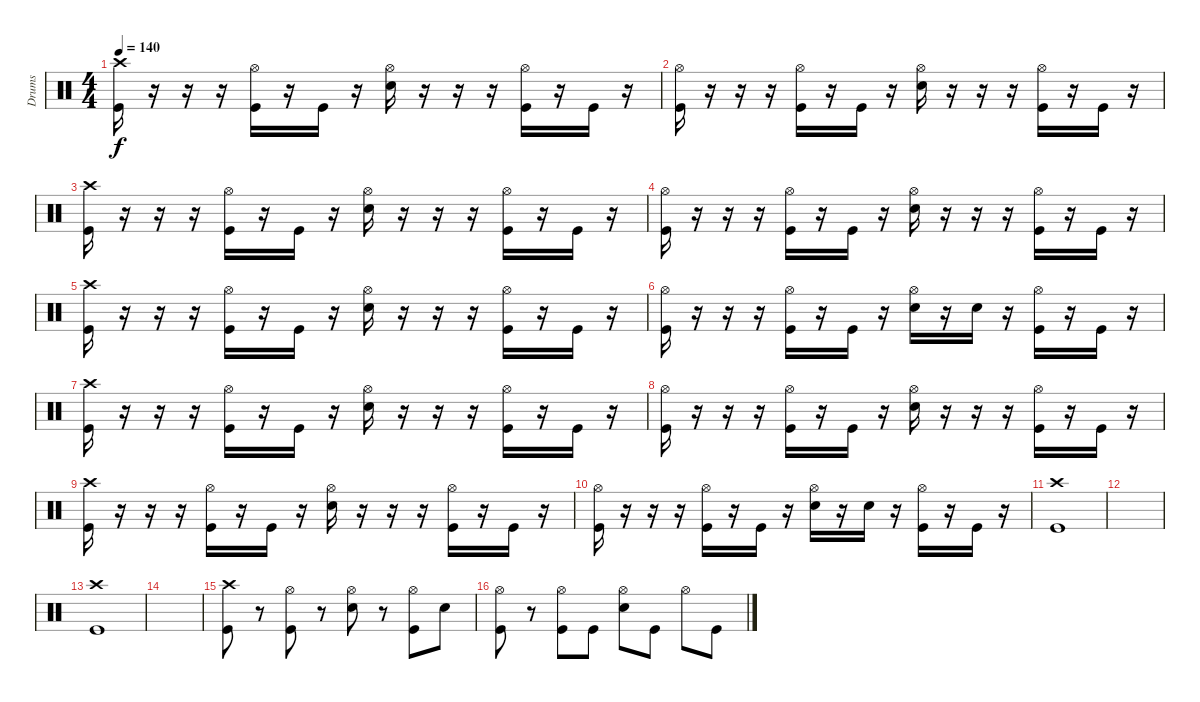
\track ("Drums" "Drums") {instrument percussion}
\staff {score}
\articulation defaults
\ts (4 4)
\tempo 140
\clef neutral
\ks c
("Crash high (hit)" "Kick (hit)").16{dy f} r.16 r.16 r.16 ("Hi-Hat (open)" "Kick (hit)").16 r.16 "Kick (hit)".16 r.16 ("Hi-Hat (open)" "Snare (hit) 2").16 r.16 r.16 r.16 ("Hi-Hat (open)" "Kick (hit)").16 r.16 "Kick (hit)".16 r.16 |
("Hi-Hat (open)" "Kick (hit)").16 r.16 r.16 r.16 ("Hi-Hat (open)" "Kick (hit)").16 r.16 "Kick (hit)".16 r.16 ("Hi-Hat (open)" "Snare (hit) 2").16 r.16 r.16 r.16 ("Hi-Hat (open)" "Kick (hit)").16 r.16 "Kick (hit)".16 r.16 |
("Crash high (hit)" "Kick (hit)").16 r.16 r.16 r.16 ("Hi-Hat (open)" "Kick (hit)").16 r.16 "Kick (hit)".16 r.16 ("Hi-Hat (open)" "Snare (hit) 2").16 r.16 r.16 r.16 ("Hi-Hat (open)" "Kick (hit)").16 r.16 "Kick (hit)".16 r.16 |
("Hi-Hat (open)" "Kick (hit)").16 r.16 r.16 r.16 ("Hi-Hat (open)" "Kick (hit)").16 r.16 "Kick (hit)".16 r.16 ("Hi-Hat (open)" "Snare (hit) 2").16 r.16 r.16 r.16 ("Hi-Hat (open)" "Kick (hit)").16 r.16 "Kick (hit)".16 r.16 |
("Crash high (hit)" "Kick (hit)").16 r.16 r.16 r.16 ("Hi-Hat (open)" "Kick (hit)").16 r.16 "Kick (hit)".16 r.16 ("Hi-Hat (open)" "Snare (hit) 2").16 r.16 r.16 r.16 ("Hi-Hat (open)" "Kick (hit)").16 r.16 "Kick (hit)".16 r.16 |
("Hi-Hat (open)" "Kick (hit)").16 r.16 r.16 r.16 ("Hi-Hat (open)" "Kick (hit)").16 r.16 "Kick (hit)".16 r.16 ("Hi-Hat (open)" "Snare (hit) 2").16 r.16 "Snare (hit) 2".16 r.16 ("Hi-Hat (open)" "Kick (hit)").16 r.16 "Kick (hit)".16 r.16 |
("Crash high (hit)" "Kick (hit)").16 r.16 r.16 r.16 ("Hi-Hat (open)" "Kick (hit)").16 r.16 "Kick (hit)".16 r.16 ("Hi-Hat (open)" "Snare (hit) 2").16 r.16 r.16 r.16 ("Hi-Hat (open)" "Kick (hit)").16 r.16 "Kick (hit)".16 r.16 |
("Hi-Hat (open)" "Kick (hit)").16 r.16 r.16 r.16 ("Hi-Hat (open)" "Kick (hit)").16 r.16 "Kick (hit)".16 r.16 ("Hi-Hat (open)" "Snare (hit) 2").16 r.16 r.16 r.16 ("Hi-Hat (open)" "Kick (hit)").16 r.16 "Kick (hit)".16 r.16 |
("Crash high (hit)" "Kick (hit)").16 r.16 r.16 r.16 ("Hi-Hat (open)" "Kick (hit)").16 r.16 "Kick (hit)".16 r.16 ("Hi-Hat (open)" "Snare (hit) 2").16 r.16 r.16 r.16 ("Hi-Hat (open)" "Kick (hit)").16 r.16 "Kick (hit)".16 r.16 |
("Hi-Hat (open)" "Kick (hit)").16 r.16 r.16 r.16 ("Hi-Hat (open)" "Kick (hit)").16 r.16 "Kick (hit)".16 r.16 ("Hi-Hat (open)" "Snare (hit) 2").16 r.16 "Snare (hit) 2".16 r.16 ("Hi-Hat (open)" "Kick (hit)").16 r.16 "Kick (hit)".16 r.16 |
("Crash high (hit)" "Kick (hit)").1 |
|
("Crash high (hit)" "Kick (hit)").1 |
|
("Crash high (hit)" "Kick (hit)").8 r.8 ("Hi-Hat (open)" "Kick (hit)").8 r.8 ("Hi-Hat (open)" "Snare (hit) 2").8 r.8 ("Hi-Hat (open)" "Kick (hit)").8 "Snare (hit) 2".8 |
("Hi-Hat (open)" "Kick (hit)").8 r.8 ("Hi-Hat (open)" "Kick (hit)").8 "Kick (hit)".8 ("Hi-Hat (open)" "Snare (hit) 2").8 "Kick (hit)".8 "Hi-Hat (open)".8 "Kick (hit)".8
